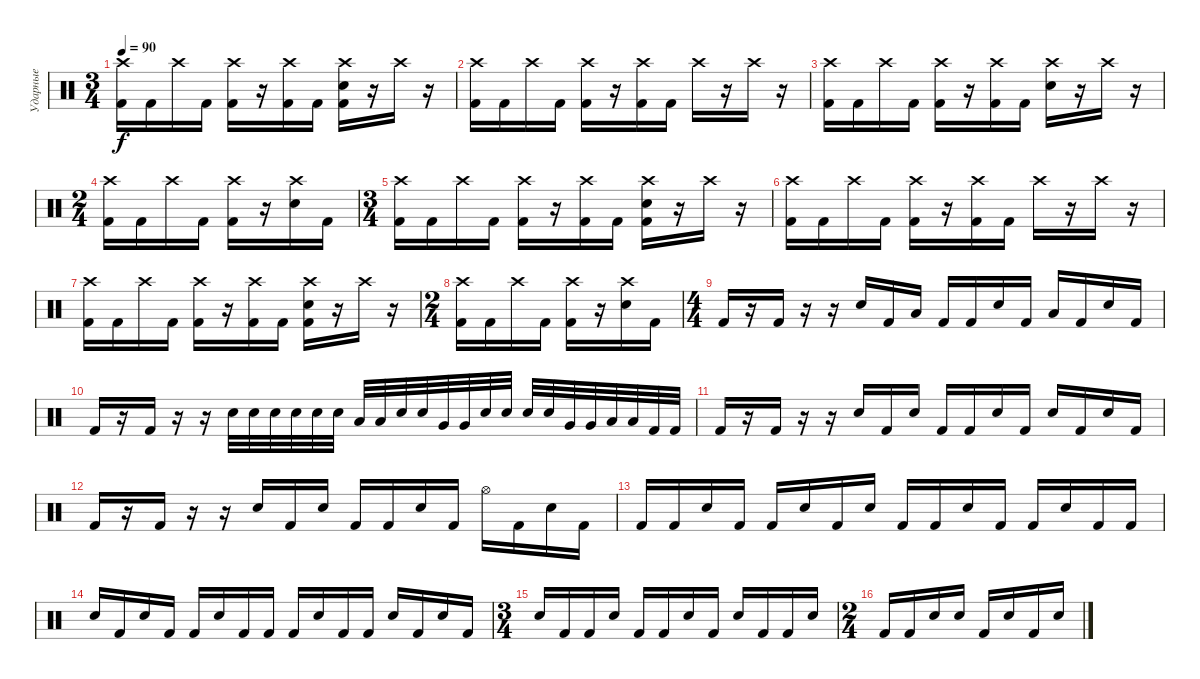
\track ("Ударные" "Ударные") {instrument percussion}
\staff {score}
\articulation defaults
\ts (3 4)
\tempo 90
\clef neutral
\ks c
("Crash high (hit)" "Kick (hit) 2").16{dy f} "Kick (hit) 2".16 "Crash high (hit)".16 "Kick (hit) 2".16 ("Crash high (hit)" "Kick (hit) 2").16 r.16 ("Crash high (hit)" "Kick (hit) 2").16 "Kick (hit) 2".16 ("Crash high (hit)" "Snare (hit) 2" "Kick (hit) 2").16 r.16 "Crash high (hit)".16 r.16 |
("Crash high (hit)" "Kick (hit) 2").16 "Kick (hit) 2".16 "Crash high (hit)".16 "Kick (hit) 2".16 ("Crash high (hit)" "Kick (hit) 2").16 r.16 ("Crash high (hit)" "Kick (hit) 2").16 "Kick (hit) 2".16 "Crash high (hit)".16 r.16 "Crash high (hit)".16 r.16 |
("Crash high (hit)" "Kick (hit) 2").16 "Kick (hit) 2".16 "Crash high (hit)".16 "Kick (hit) 2".16 ("Crash high (hit)" "Kick (hit) 2").16 r.16 ("Crash high (hit)" "Kick (hit) 2").16 "Kick (hit) 2".16 ("Crash high (hit)" "Snare (hit) 2").16 r.16 "Crash high (hit)".16 r.16 |
\ts (2 4)
("Crash high (hit)" "Kick (hit) 2").16 "Kick (hit) 2".16 "Crash high (hit)".16 "Kick (hit) 2".16 ("Crash high (hit)" "Kick (hit) 2").16 r.16 ("Crash high (hit)" "Snare (hit) 2").16 "Kick (hit) 2".16 |
\ts (3 4)
("Crash high (hit)" "Kick (hit) 2").16 "Kick (hit) 2".16 "Crash high (hit)".16 "Kick (hit) 2".16 ("Crash high (hit)" "Kick (hit) 2").16 r.16 ("Crash high (hit)" "Kick (hit) 2").16 "Kick (hit) 2".16 ("Crash high (hit)" "Snare (hit) 2" "Kick (hit) 2").16 r.16 "Crash high (hit)".16 r.16 |
("Crash high (hit)" "Kick (hit) 2").16 "Kick (hit) 2".16 "Crash high (hit)".16 "Kick (hit) 2".16 ("Crash high (hit)" "Kick (hit) 2").16 r.16 ("Crash high (hit)" "Kick (hit) 2").16 "Kick (hit) 2".16 "Crash high (hit)".16 r.16 "Crash high (hit)".16 r.16 |
("Crash high (hit)" "Kick (hit) 2").16 "Kick (hit) 2".16 "Crash high (hit)".16 "Kick (hit) 2".16 ("Crash high (hit)" "Kick (hit) 2").16 r.16 ("Crash high (hit)" "Kick (hit) 2").16 "Kick (hit) 2".16 ("Crash high (hit)" "Snare (hit) 2" "Kick (hit) 2").16 r.16 "Crash high (hit)".16 r.16 |
\ts (2 4)
("Crash high (hit)" "Kick (hit) 2").16 "Kick (hit) 2".16 "Crash high (hit)".16 "Kick (hit) 2".16 ("Crash high (hit)" "Kick (hit) 2").16 r.16 ("Crash high (hit)" "Snare (hit) 2").16 "Kick (hit) 2".16 |
\ts (4 4)
"Kick (hit) 2".16 r.16 "Kick (hit) 2".16 r.16 r.16 "Snare (hit) 2".16 "Kick (hit) 2".16 "Low Floor Tom (hit)".16 "Kick (hit) 2".16 "Kick (hit) 2".16 "Snare (hit) 2".16 "Kick (hit) 2".16 "Low Floor Tom (hit)".16 "Kick (hit) 2".16 "Snare (hit) 2".16 "Kick (hit) 2".16 |
"Kick (hit) 2".16 r.16 "Kick (hit) 2".16 r.16 r.16 "Snare (hit) 2".32 "Snare (hit) 2".32 "Snare (hit) 2".32 "Snare (hit) 2".32 "Snare (hit) 2".32 "Snare (hit) 2".32 "Low Floor Tom (hit)".32 "Low Floor Tom (hit)".32 "Snare (hit) 2".32 "Snare (hit) 2".32 "Very Low Tom (hit)".32 "Very Low Tom (hit)".32 "Snare (hit) 2".32 "Snare (hit) 2".32 "Snare (hit) 2".32 "Snare (hit) 2".32 "Very Low Tom (hit)".32 "Very Low Tom (hit)".32 "Low Floor Tom (hit)".32 "Low Floor Tom (hit)".32 "Kick (hit) 2".32 "Kick (hit) 2".32 |
"Kick (hit) 2".16 r.16 "Kick (hit) 2".16 r.16 r.16 "Snare (hit) 2".16 "Kick (hit) 2".16 "Snare (hit) 2".16 "Kick (hit) 2".16 "Kick (hit) 2".16 "Snare (hit) 2".16 "Kick (hit) 2".16 "Snare (hit) 2".16 "Kick (hit) 2".16 "Snare (hit) 2".16 "Kick (hit) 2".16 |
"Kick (hit) 2".16 r.16 "Kick (hit) 2".16 r.16 r.16 "Snare (hit) 2".16 "Kick (hit) 2".16 "Snare (hit) 2".16 "Kick (hit) 2".16 "Kick (hit) 2".16 "Snare (hit) 2".16 "Kick (hit) 2".16 "Hi-Hat (open)".16 "Kick (hit) 2".16 "Snare (hit) 2".16 "Kick (hit) 2".16 |
"Kick (hit) 2".16 "Kick (hit) 2".16 "Snare (hit) 2".16 "Kick (hit) 2".16 "Kick (hit) 2".16 "Snare (hit) 2".16 "Kick (hit) 2".16 "Snare (hit) 2".16 "Kick (hit) 2".16 "Kick (hit) 2".16 "Snare (hit) 2".16 "Kick (hit) 2".16 "Kick (hit) 2".16 "Snare (hit) 2".16 "Kick (hit) 2".16 "Kick (hit) 2".16 |
"Snare (hit) 2".16 "Kick (hit) 2".16 "Snare (hit) 2".16 "Kick (hit) 2".16 "Kick (hit) 2".16 "Snare (hit) 2".16 "Kick (hit) 2".16 "Kick (hit) 2".16 "Kick (hit) 2".16 "Snare (hit) 2".16 "Kick (hit) 2".16 "Kick (hit) 2".16 "Snare (hit) 2".16 "Kick (hit) 2".16 "Snare (hit) 2".16 "Kick (hit) 2".16 |
\ts (3 4)
"Snare (hit) 2".16 "Kick (hit) 2".16 "Kick (hit) 2".16 "Snare (hit) 2".16 "Kick (hit) 2".16 "Kick (hit) 2".16 "Snare (hit) 2".16 "Kick (hit) 2".16 "Snare (hit) 2".16 "Kick (hit) 2".16 "Kick (hit) 2".16 "Snare (hit) 2".16 |
\ts (2 4)
"Kick (hit) 2".16 "Kick (hit) 2".16 "Snare (hit) 2".16 "Snare (hit) 2".16 "Kick (hit) 2".16 "Snare (hit) 2".16 "Kick (hit) 2".16 "Snare (hit) 2".16
